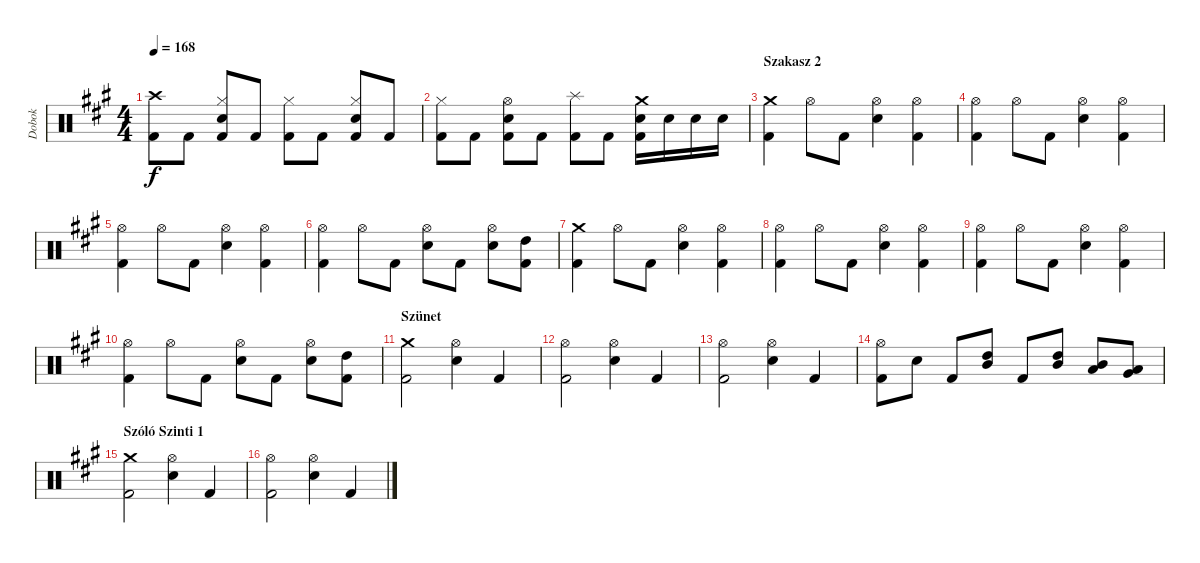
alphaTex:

\track ("Dobok" "Dobok") {instrument percussion}
\staff {score}
\articulation defaults
\ts (4 4)
\tempo 168
\clef neutral
\ks f#minor
("Crash high (hit)" "Kick (hit) 2").8{dy f} "Kick (hit) 2".8 ("Hi-Hat (closed)" "Snare (hit) 2" "Kick (hit) 2").8 "Kick (hit) 2".8 ("Hi-Hat (closed)" "Kick (hit) 2").8 "Kick (hit) 2".8 ("Hi-Hat (closed)" "Snare (hit) 2" "Kick (hit) 2").8 "Kick (hit) 2".8 |
("Hi-Hat (closed)" "Kick (hit) 2").8 "Kick (hit) 2".8 ("Hi-Hat (open)" "Snare (hit) 2" "Kick (hit) 2").8 "Kick (hit) 2".8 ("Splash (hit)" "Kick (hit) 2").8 "Kick (hit) 2".8 ("Crash medium (hit)" "Snare (hit) 2" "Kick (hit) 2").16 "Snare (hit) 2".16 "Snare (hit) 2".16 "Snare (hit) 2".16 |
\section ("" "Szakasz 2")
("Crash medium (hit)" "Kick (hit) 2").4 "Hi-Hat (open)".8 "Kick (hit) 2".8 ("Hi-Hat (open)" "Snare (hit) 2").4 ("Hi-Hat (open)" "Kick (hit) 2").4 |
("Hi-Hat (open)" "Kick (hit) 2").4 "Hi-Hat (open)".8 "Kick (hit) 2".8 ("Hi-Hat (open)" "Snare (hit) 2").4 ("Hi-Hat (open)" "Kick (hit) 2").4 |
("Hi-Hat (open)" "Kick (hit) 2").4 "Hi-Hat (open)".8 "Kick (hit) 2".8 ("Hi-Hat (open)" "Snare (hit) 2").4 ("Hi-Hat (open)" "Kick (hit) 2").4 |
("Hi-Hat (open)" "Kick (hit) 2").4 "Hi-Hat (open)".8 "Kick (hit) 2".8 ("Hi-Hat (open)" "Snare (hit) 2").8 "Kick (hit) 2".8 ("Hi-Hat (open)" "Snare (hit) 2").8 ("High Tom (hit)" "Kick (hit) 2").8 |
("Crash medium (hit)" "Kick (hit) 2").4 "Hi-Hat (open)".8 "Kick (hit) 2".8 ("Hi-Hat (open)" "Snare (hit) 2").4 ("Hi-Hat (open)" "Kick (hit) 2").4 |
("Hi-Hat (open)" "Kick (hit) 2").4 "Hi-Hat (open)".8 "Kick (hit) 2".8 ("Hi-Hat (open)" "Snare (hit) 2").4 ("Hi-Hat (open)" "Kick (hit) 2").4 |
("Hi-Hat (open)" "Kick (hit) 2").4 "Hi-Hat (open)".8 "Kick (hit) 2".8 ("Hi-Hat (open)" "Snare (hit) 2").4 ("Hi-Hat (open)" "Kick (hit) 2").4 |
("Hi-Hat (open)" "Kick (hit) 2").4 "Hi-Hat (open)".8 "Kick (hit) 2".8 ("Hi-Hat (open)" "Snare (hit) 2").8 "Kick (hit) 2".8 ("Hi-Hat (open)" "Snare (hit) 2").8 ("High Tom (hit)" "Kick (hit) 2").8 |
\section ("" "Szünet")
("Crash medium (hit)" "Kick (hit) 2").2 ("Hi-Hat (open)" "Snare (hit) 2").4 "Kick (hit) 2".4 |
("Hi-Hat (open)" "Kick (hit) 2").2 ("Hi-Hat (open)" "Snare (hit) 2").4 "Kick (hit) 2".4 |
("Hi-Hat (open)" "Kick (hit) 2").2 ("Hi-Hat (open)" "Snare (hit) 2").4 "Kick (hit) 2".4 |
("Hi-Hat (open)" "Kick (hit) 2").8 "Snare (hit) 2".8 "Kick (hit) 2".8 ("High Tom (hit)" "Mid Tom (hit)").8 "Kick (hit) 2".8 ("High Tom (hit)" "Mid Tom (hit)").8 ("Mid Tom (hit)" "Low Tom (hit)").8 ("Low Tom (hit)" "Very Low Tom (hit)").8 |
\section ("" "Szóló Szinti 1")
("Crash medium (hit)" "Kick (hit) 2").2 ("Hi-Hat (open)" "Snare (hit) 2").4 "Kick (hit) 2".4 |
("Hi-Hat (open)" "Kick (hit) 2").2 ("Hi-Hat (open)" "Snare (hit) 2").4 "Kick (hit) 2".4
